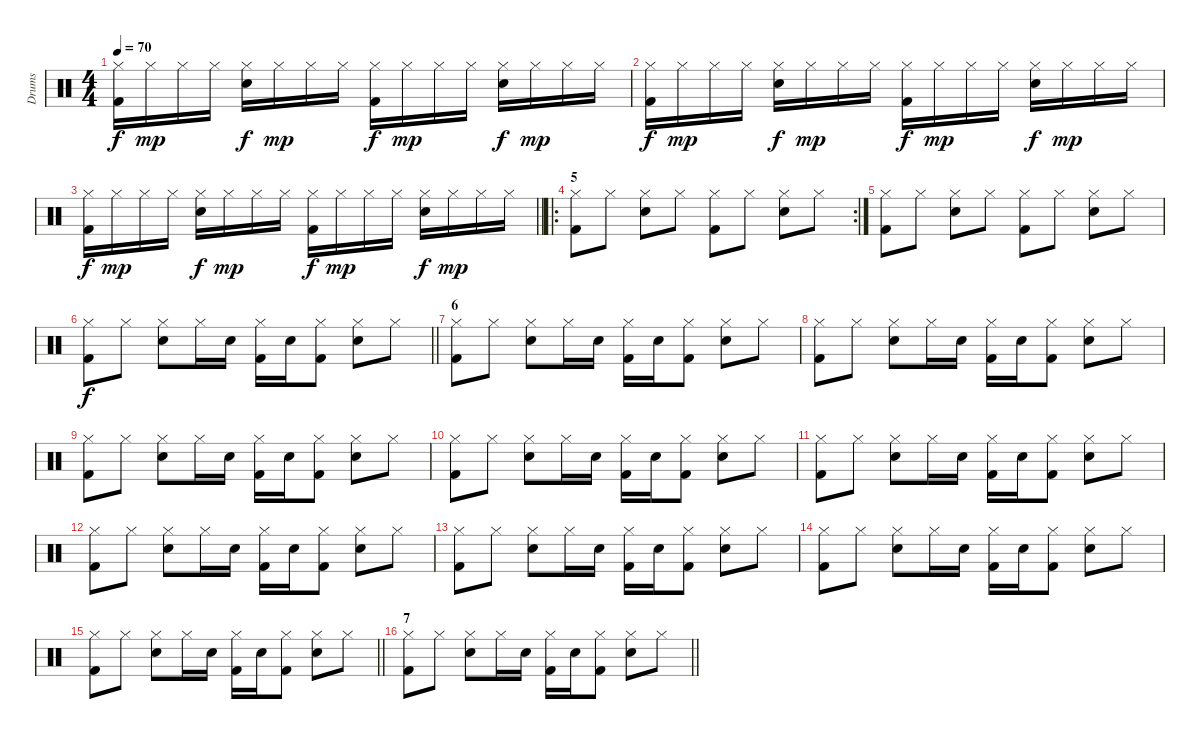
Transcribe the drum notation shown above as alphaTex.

\track ("Drums" "Drums") {instrument percussion}
\staff {score}
\articulation defaults
\ts (4 4)
\tempo 70
\clef neutral
\ks c
("Kick (hit) 2" "Hi-Hat (closed)").16{dy f} "Hi-Hat (closed)".16{dy mp} "Hi-Hat (closed)".16 "Hi-Hat (closed)".16 ("Snare (hit) 2" "Hi-Hat (closed)").16{dy f} "Hi-Hat (closed)".16{dy mp} "Hi-Hat (closed)".16 "Hi-Hat (closed)".16 ("Kick (hit) 2" "Hi-Hat (closed)").16{dy f} "Hi-Hat (closed)".16{dy mp} "Hi-Hat (closed)".16 "Hi-Hat (closed)".16 ("Snare (hit) 2" "Hi-Hat (closed)").16{dy f} "Hi-Hat (closed)".16{dy mp} "Hi-Hat (closed)".16 "Hi-Hat (closed)".16 |
("Kick (hit) 2" "Hi-Hat (closed)").16{dy f} "Hi-Hat (closed)".16{dy mp} "Hi-Hat (closed)".16 "Hi-Hat (closed)".16 ("Snare (hit) 2" "Hi-Hat (closed)").16{dy f} "Hi-Hat (closed)".16{dy mp} "Hi-Hat (closed)".16 "Hi-Hat (closed)".16 ("Kick (hit) 2" "Hi-Hat (closed)").16{dy f} "Hi-Hat (closed)".16{dy mp} "Hi-Hat (closed)".16 "Hi-Hat (closed)".16 ("Snare (hit) 2" "Hi-Hat (closed)").16{dy f} "Hi-Hat (closed)".16{dy mp} "Hi-Hat (closed)".16 "Hi-Hat (closed)".16 |
\barLineRight lightlight
("Kick (hit) 2" "Hi-Hat (closed)").16{dy f} "Hi-Hat (closed)".16{dy mp} "Hi-Hat (closed)".16 "Hi-Hat (closed)".16 ("Snare (hit) 2" "Hi-Hat (closed)").16{dy f} "Hi-Hat (closed)".16{dy mp} "Hi-Hat (closed)".16 "Hi-Hat (closed)".16 ("Kick (hit) 2" "Hi-Hat (closed)").16{dy f} "Hi-Hat (closed)".16{dy mp} "Hi-Hat (closed)".16 "Hi-Hat (closed)".16 ("Snare (hit) 2" "Hi-Hat (closed)").16{dy f} "Hi-Hat (closed)".16{dy mp} "Hi-Hat (closed)".16 "Hi-Hat (closed)".16 |
\ro
\rc 2
\section ("" "5")
("Kick (hit) 2" "Hi-Hat (closed)").8 "Hi-Hat (closed)".8 ("Snare (hit) 2" "Hi-Hat (closed)").8 "Hi-Hat (closed)".8 ("Kick (hit) 2" "Hi-Hat (closed)").8 "Hi-Hat (closed)".8 ("Snare (hit) 2" "Hi-Hat (closed)").8 "Hi-Hat (closed)".8 |
("Kick (hit) 2" "Hi-Hat (closed)").8 "Hi-Hat (closed)".8 ("Snare (hit) 2" "Hi-Hat (closed)").8 "Hi-Hat (closed)".8 ("Kick (hit) 2" "Hi-Hat (closed)").8 "Hi-Hat (closed)".8 ("Snare (hit) 2" "Hi-Hat (closed)").8 "Hi-Hat (closed)".8 |
\barLineRight lightlight
("Kick (hit) 2" "Hi-Hat (closed)").8{dy f} "Hi-Hat (closed)".8 ("Snare (hit) 2" "Hi-Hat (closed)").8 "Hi-Hat (closed)".16 "Snare (hit) 2".16 ("Kick (hit) 2" "Hi-Hat (closed)").16 "Snare (hit) 2".16 ("Kick (hit) 2" "Hi-Hat (closed)").8 ("Snare (hit) 2" "Hi-Hat (closed)").8 "Hi-Hat (closed)".8 |
\section ("" "6")
("Kick (hit) 2" "Hi-Hat (closed)").8 "Hi-Hat (closed)".8 ("Snare (hit) 2" "Hi-Hat (closed)").8 "Hi-Hat (closed)".16 "Snare (hit) 2".16 ("Kick (hit) 2" "Hi-Hat (closed)").16 "Snare (hit) 2".16 ("Kick (hit) 2" "Hi-Hat (closed)").8 ("Snare (hit) 2" "Hi-Hat (closed)").8 "Hi-Hat (closed)".8 |
("Kick (hit) 2" "Hi-Hat (closed)").8 "Hi-Hat (closed)".8 ("Snare (hit) 2" "Hi-Hat (closed)").8 "Hi-Hat (closed)".16 "Snare (hit) 2".16 ("Kick (hit) 2" "Hi-Hat (closed)").16 "Snare (hit) 2".16 ("Kick (hit) 2" "Hi-Hat (closed)").8 ("Snare (hit) 2" "Hi-Hat (closed)").8 "Hi-Hat (closed)".8 |
("Kick (hit) 2" "Hi-Hat (closed)").8 "Hi-Hat (closed)".8 ("Snare (hit) 2" "Hi-Hat (closed)").8 "Hi-Hat (closed)".16 "Snare (hit) 2".16 ("Kick (hit) 2" "Hi-Hat (closed)").16 "Snare (hit) 2".16 ("Kick (hit) 2" "Hi-Hat (closed)").8 ("Snare (hit) 2" "Hi-Hat (closed)").8 "Hi-Hat (closed)".8 |
("Kick (hit) 2" "Hi-Hat (closed)").8 "Hi-Hat (closed)".8 ("Snare (hit) 2" "Hi-Hat (closed)").8 "Hi-Hat (closed)".16 "Snare (hit) 2".16 ("Kick (hit) 2" "Hi-Hat (closed)").16 "Snare (hit) 2".16 ("Kick (hit) 2" "Hi-Hat (closed)").8 ("Snare (hit) 2" "Hi-Hat (closed)").8 "Hi-Hat (closed)".8 |
("Kick (hit) 2" "Hi-Hat (closed)").8 "Hi-Hat (closed)".8 ("Snare (hit) 2" "Hi-Hat (closed)").8 "Hi-Hat (closed)".16 "Snare (hit) 2".16 ("Kick (hit) 2" "Hi-Hat (closed)").16 "Snare (hit) 2".16 ("Kick (hit) 2" "Hi-Hat (closed)").8 ("Snare (hit) 2" "Hi-Hat (closed)").8 "Hi-Hat (closed)".8 |
("Kick (hit) 2" "Hi-Hat (closed)").8 "Hi-Hat (closed)".8 ("Snare (hit) 2" "Hi-Hat (closed)").8 "Hi-Hat (closed)".16 "Snare (hit) 2".16 ("Kick (hit) 2" "Hi-Hat (closed)").16 "Snare (hit) 2".16 ("Kick (hit) 2" "Hi-Hat (closed)").8 ("Snare (hit) 2" "Hi-Hat (closed)").8 "Hi-Hat (closed)".8 |
("Kick (hit) 2" "Hi-Hat (closed)").8 "Hi-Hat (closed)".8 ("Snare (hit) 2" "Hi-Hat (closed)").8 "Hi-Hat (closed)".16 "Snare (hit) 2".16 ("Kick (hit) 2" "Hi-Hat (closed)").16 "Snare (hit) 2".16 ("Kick (hit) 2" "Hi-Hat (closed)").8 ("Snare (hit) 2" "Hi-Hat (closed)").8 "Hi-Hat (closed)".8 |
("Kick (hit) 2" "Hi-Hat (closed)").8 "Hi-Hat (closed)".8 ("Snare (hit) 2" "Hi-Hat (closed)").8 "Hi-Hat (closed)".16 "Snare (hit) 2".16 ("Kick (hit) 2" "Hi-Hat (closed)").16 "Snare (hit) 2".16 ("Kick (hit) 2" "Hi-Hat (closed)").8 ("Snare (hit) 2" "Hi-Hat (closed)").8 "Hi-Hat (closed)".8 |
\barLineRight lightlight
("Kick (hit) 2" "Hi-Hat (closed)").8 "Hi-Hat (closed)".8 ("Snare (hit) 2" "Hi-Hat (closed)").8 "Hi-Hat (closed)".16 "Snare (hit) 2".16 ("Kick (hit) 2" "Hi-Hat (closed)").16 "Snare (hit) 2".16 ("Kick (hit) 2" "Hi-Hat (closed)").8 ("Snare (hit) 2" "Hi-Hat (closed)").8 "Hi-Hat (closed)".8 |
\section ("" "7")
\barLineRight lightlight
("Kick (hit) 2" "Hi-Hat (closed)").8 "Hi-Hat (closed)".8 ("Snare (hit) 2" "Hi-Hat (closed)").8 "Hi-Hat (closed)".16 "Snare (hit) 2".16 ("Kick (hit) 2" "Hi-Hat (closed)").16 "Snare (hit) 2".16 ("Kick (hit) 2" "Hi-Hat (closed)").8 ("Snare (hit) 2" "Hi-Hat (closed)").8 "Hi-Hat (closed)".8
